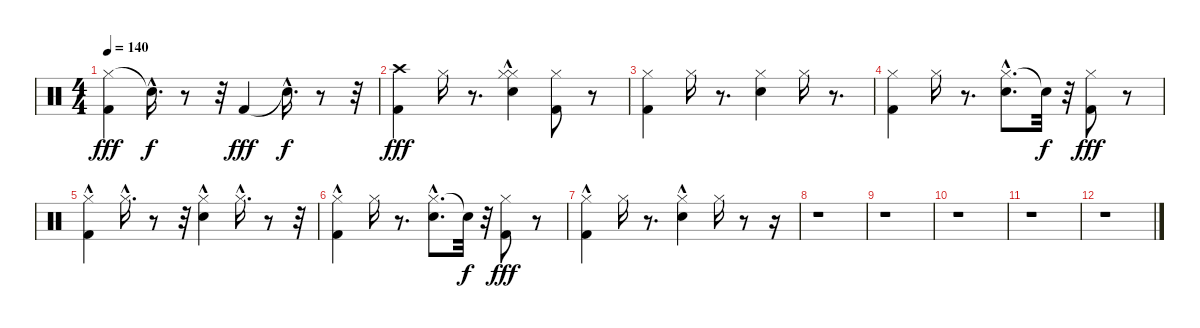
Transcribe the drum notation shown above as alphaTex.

\track "" {instrument percussion}
\staff {score}
\articulation defaults
\ts (4 4)
\tempo 140
\clef neutral
\ks c
("Hi-Hat (closed)" "Kick (hit) 2").4{dy fff} "Snare (hit)"{hac t}.16{d dy f} r.8 r.32 "Kick (hit) 2".4{dy fff} "Snare (hit)"{hac t}.16{d dy f} r.8 r.32 |
("Crash high (hit)" "Kick (hit) 2").4{dy fff} "Hi-Hat (closed)".16 r.8{d} ("Hi-Hat (closed)"{hac} "Hi-Hat (closed)"{hac} "Snare (hit) 2").4 ("Kick (hit) 2" "Hi-Hat (closed)").8 r.8 |
("Kick (hit) 2" "Hi-Hat (closed)").4 "Hi-Hat (closed)".16 r.8{d} ("Hi-Hat (closed)" "Snare (hit) 2").4 "Hi-Hat (closed)".16 r.8{d} |
("Hi-Hat (closed)" "Kick (hit) 2").4 "Hi-Hat (closed)".16 r.8{d} ("Hi-Hat (closed)" "Snare (hit) 2"{hac}).8{d} "Snare (hit)"{t}.32{dy f} r.32 ("Hi-Hat (closed)" "Kick (hit) 2").8{dy fff} r.8 |
("Hi-Hat (closed)"{hac} "Kick (hit) 2").4 "Hi-Hat (closed)"{hac}.16{d} r.8 r.32 ("Snare (hit) 2" "Hi-Hat (closed)"{hac}).4 "Hi-Hat (closed)"{hac}.16{d} r.8 r.32 |
("Hi-Hat (closed)"{hac} "Kick (hit) 2").4 "Hi-Hat (closed)".16 r.8{d} ("Hi-Hat (closed)" "Snare (hit) 2"{hac}).8{d} "Snare (hit)"{t}.32{dy f} r.32 ("Kick (hit) 2" "Hi-Hat (closed)").8{dy fff} r.8 |
("Hi-Hat (closed)"{hac} "Kick (hit) 2").4 "Hi-Hat (closed)".16 r.8{d} ("Snare (hit) 2"{hac} "Hi-Hat (closed)").4 "Hi-Hat (closed)".16 r.8 r.16 |
r.1 |
r.1 |
r.1 |
r.1 |
r.1
